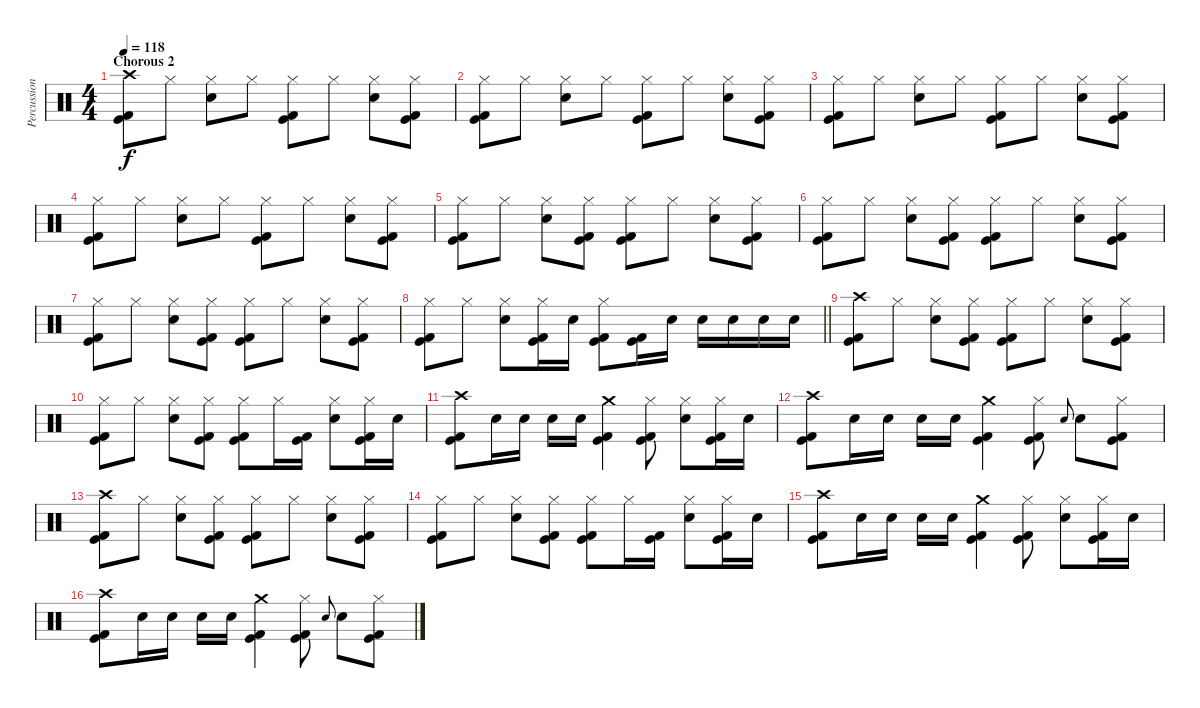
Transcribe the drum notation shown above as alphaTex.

\track ("Percussion" "Percussion") {instrument percussion}
\staff {score}
\articulation defaults
\ts (4 4)
\section ("" "Chorous 2")
\tempo 118
\clef neutral
\ks c
("Crash high (hit)" "Kick (hit)" "Kick (hit) 2").8{dy f} "Hi-Hat (closed)".8 ("Hi-Hat (closed)" "Electric Snare (hit)").8 "Hi-Hat (closed)".8 ("Hi-Hat (closed)" "Kick (hit)" "Kick (hit) 2").8 "Hi-Hat (closed)".8 ("Hi-Hat (closed)" "Electric Snare (hit)").8 ("Hi-Hat (closed)" "Kick (hit)" "Kick (hit) 2").8 |
("Hi-Hat (closed)" "Kick (hit)" "Kick (hit) 2").8 "Hi-Hat (closed)".8 ("Hi-Hat (closed)" "Electric Snare (hit)").8 "Hi-Hat (closed)".8 ("Hi-Hat (closed)" "Kick (hit)" "Kick (hit) 2").8 "Hi-Hat (closed)".8 ("Hi-Hat (closed)" "Electric Snare (hit)").8 ("Hi-Hat (closed)" "Kick (hit)" "Kick (hit) 2").8 |
("Hi-Hat (closed)" "Kick (hit)" "Kick (hit) 2").8 "Hi-Hat (closed)".8 ("Hi-Hat (closed)" "Electric Snare (hit)").8 "Hi-Hat (closed)".8 ("Hi-Hat (closed)" "Kick (hit)" "Kick (hit) 2").8 "Hi-Hat (closed)".8 ("Hi-Hat (closed)" "Electric Snare (hit)").8 ("Hi-Hat (closed)" "Kick (hit)" "Kick (hit) 2").8 |
("Hi-Hat (closed)" "Kick (hit)" "Kick (hit) 2").8 "Hi-Hat (closed)".8 ("Hi-Hat (closed)" "Electric Snare (hit)").8 "Hi-Hat (closed)".8 ("Hi-Hat (closed)" "Kick (hit)" "Kick (hit) 2").8 "Hi-Hat (closed)".8 ("Hi-Hat (closed)" "Electric Snare (hit)").8 ("Hi-Hat (closed)" "Kick (hit)" "Kick (hit) 2").8 |
("Hi-Hat (closed)" "Kick (hit)" "Kick (hit) 2").8 "Hi-Hat (closed)".8 ("Hi-Hat (closed)" "Electric Snare (hit)").8 ("Hi-Hat (closed)" "Kick (hit)" "Kick (hit) 2").8 ("Hi-Hat (closed)" "Kick (hit)" "Kick (hit) 2").8 "Hi-Hat (closed)".8 ("Hi-Hat (closed)" "Electric Snare (hit)").8 ("Hi-Hat (closed)" "Kick (hit)" "Kick (hit) 2").8 |
("Hi-Hat (closed)" "Kick (hit)" "Kick (hit) 2").8 "Hi-Hat (closed)".8 ("Hi-Hat (closed)" "Electric Snare (hit)").8 ("Hi-Hat (closed)" "Kick (hit)" "Kick (hit) 2").8 ("Hi-Hat (closed)" "Kick (hit)" "Kick (hit) 2").8 "Hi-Hat (closed)".8 ("Hi-Hat (closed)" "Electric Snare (hit)").8 ("Hi-Hat (closed)" "Kick (hit)" "Kick (hit) 2").8 |
("Hi-Hat (closed)" "Kick (hit)" "Kick (hit) 2").8 "Hi-Hat (closed)".8 ("Hi-Hat (closed)" "Electric Snare (hit)").8 ("Hi-Hat (closed)" "Kick (hit)" "Kick (hit) 2").8 ("Hi-Hat (closed)" "Kick (hit)" "Kick (hit) 2").8 "Hi-Hat (closed)".8 ("Hi-Hat (closed)" "Electric Snare (hit)").8 ("Hi-Hat (closed)" "Kick (hit)" "Kick (hit) 2").8 |
\barLineRight lightlight
("Hi-Hat (closed)" "Kick (hit)" "Kick (hit) 2").8 "Hi-Hat (closed)".8 ("Hi-Hat (closed)" "Electric Snare (hit)").8 ("Hi-Hat (closed)" "Kick (hit)" "Kick (hit) 2").16 "Electric Snare (hit)".16 ("Hi-Hat (closed)" "Kick (hit)" "Kick (hit) 2").8 ("Kick (hit)" "Kick (hit) 2").16 "Electric Snare (hit)".16 "Electric Snare (hit)".16 "Electric Snare (hit)".16 "Electric Snare (hit)".16 "Electric Snare (hit)".16 |
\section ("" "")
("Crash high (hit)" "Kick (hit)" "Kick (hit) 2").8 "Hi-Hat (closed)".8 ("Hi-Hat (closed)" "Electric Snare (hit)").8 ("Hi-Hat (closed)" "Kick (hit)" "Kick (hit) 2").8 ("Hi-Hat (closed)" "Kick (hit)" "Kick (hit) 2").8 "Hi-Hat (closed)".8 ("Hi-Hat (closed)" "Electric Snare (hit)").8 ("Hi-Hat (closed)" "Kick (hit)" "Kick (hit) 2").8 |
("Hi-Hat (closed)" "Kick (hit)" "Kick (hit) 2").8 "Hi-Hat (closed)".8 ("Hi-Hat (closed)" "Electric Snare (hit)").8 ("Hi-Hat (closed)" "Kick (hit)" "Kick (hit) 2").8 ("Hi-Hat (closed)" "Kick (hit)" "Kick (hit) 2").8 "Hi-Hat (closed)".16 ("Kick (hit)" "Kick (hit) 2").16 ("Hi-Hat (closed)" "Electric Snare (hit)").8 ("Hi-Hat (closed)" "Kick (hit)" "Kick (hit) 2").16 "Electric Snare (hit)".16 |
("Crash high (hit)" "Kick (hit)" "Kick (hit) 2").8 "Electric Snare (hit)".16 "Electric Snare (hit)".16 "Electric Snare (hit)".16 "Electric Snare (hit)".16 ("Crash medium (hit)" "Kick (hit)" "Kick (hit) 2").4 ("Hi-Hat (closed)" "Kick (hit)" "Kick (hit) 2").8 ("Hi-Hat (closed)" "Electric Snare (hit)").8 ("Hi-Hat (closed)" "Kick (hit)" "Kick (hit) 2").16 "Electric Snare (hit)".16 |
("Crash high (hit)" "Kick (hit)" "Kick (hit) 2").8 "Electric Snare (hit)".16 "Electric Snare (hit)".16 "Electric Snare (hit)".16 "Electric Snare (hit)".16 ("Crash medium (hit)" "Kick (hit)" "Kick (hit) 2").4 ("Hi-Hat (closed)" "Kick (hit)" "Kick (hit) 2").8 "Electric Snare (hit)".8{gr onbeat} "Electric Snare (hit)".8 ("Hi-Hat (closed)" "Kick (hit)" "Kick (hit) 2").8 |
("Crash high (hit)" "Kick (hit)" "Kick (hit) 2").8 "Hi-Hat (closed)".8 ("Hi-Hat (closed)" "Electric Snare (hit)").8 ("Hi-Hat (closed)" "Kick (hit)" "Kick (hit) 2").8 ("Hi-Hat (closed)" "Kick (hit)" "Kick (hit) 2").8 "Hi-Hat (closed)".8 ("Hi-Hat (closed)" "Electric Snare (hit)").8 ("Hi-Hat (closed)" "Kick (hit)" "Kick (hit) 2").8 |
("Hi-Hat (closed)" "Kick (hit)" "Kick (hit) 2").8 "Hi-Hat (closed)".8 ("Hi-Hat (closed)" "Electric Snare (hit)").8 ("Hi-Hat (closed)" "Kick (hit)" "Kick (hit) 2").8 ("Hi-Hat (closed)" "Kick (hit)" "Kick (hit) 2").8 "Hi-Hat (closed)".16 ("Kick (hit)" "Kick (hit) 2").16 ("Hi-Hat (closed)" "Electric Snare (hit)").8 ("Hi-Hat (closed)" "Kick (hit)" "Kick (hit) 2").16 "Electric Snare (hit)".16 |
("Crash high (hit)" "Kick (hit)" "Kick (hit) 2").8 "Electric Snare (hit)".16 "Electric Snare (hit)".16 "Electric Snare (hit)".16 "Electric Snare (hit)".16 ("Crash medium (hit)" "Kick (hit)" "Kick (hit) 2").4 ("Hi-Hat (closed)" "Kick (hit)" "Kick (hit) 2").8 ("Hi-Hat (closed)" "Electric Snare (hit)").8 ("Hi-Hat (closed)" "Kick (hit)" "Kick (hit) 2").16 "Electric Snare (hit)".16 |
("Crash high (hit)" "Kick (hit)" "Kick (hit) 2").8 "Electric Snare (hit)".16 "Electric Snare (hit)".16 "Electric Snare (hit)".16 "Electric Snare (hit)".16 ("Crash medium (hit)" "Kick (hit)" "Kick (hit) 2").4 ("Hi-Hat (closed)" "Kick (hit)" "Kick (hit) 2").8 "Electric Snare (hit)".8{gr onbeat} "Electric Snare (hit)".8 ("Hi-Hat (closed)" "Kick (hit)" "Kick (hit) 2").8
